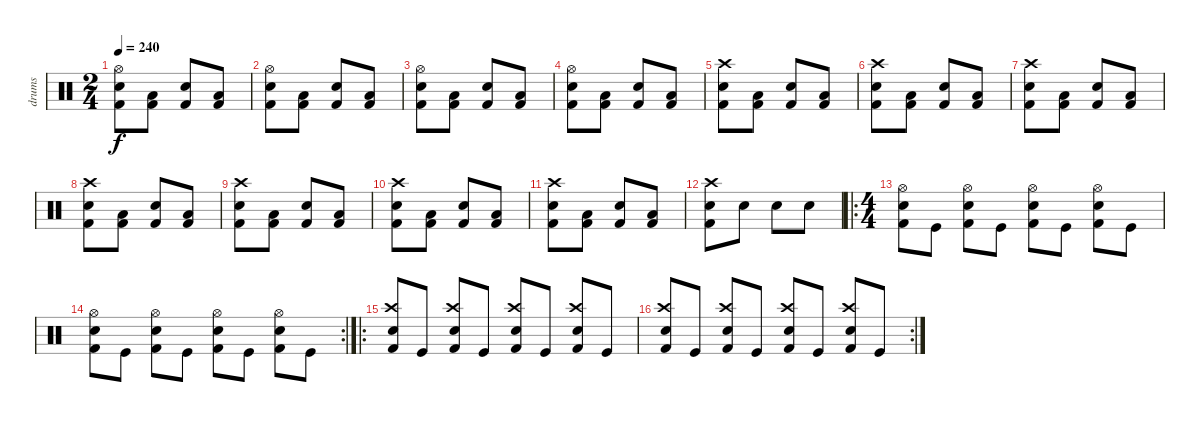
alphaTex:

\track ("drums" "drums") {instrument percussion}
\staff {score}
\articulation defaults
\ts (2 4)
\tempo 240
\clef neutral
\ks c
("Hi-Hat (open)" "Snare (hit) 2" "Kick (hit) 2").8{dy f} ("Low Tom (hit)" "Kick (hit) 2").8 ("Snare (hit) 2" "Kick (hit) 2").8 ("Low Tom (hit)" "Kick (hit) 2").8 |
("Hi-Hat (open)" "Snare (hit) 2" "Kick (hit) 2").8 ("Low Tom (hit)" "Kick (hit) 2").8 ("Snare (hit) 2" "Kick (hit) 2").8 ("Low Tom (hit)" "Kick (hit) 2").8 |
("Hi-Hat (open)" "Snare (hit) 2" "Kick (hit) 2").8 ("Low Tom (hit)" "Kick (hit) 2").8 ("Snare (hit) 2" "Kick (hit) 2").8 ("Low Tom (hit)" "Kick (hit) 2").8 |
("Hi-Hat (open)" "Snare (hit) 2" "Kick (hit) 2").8 ("Low Tom (hit)" "Kick (hit) 2").8 ("Snare (hit) 2" "Kick (hit) 2").8 ("Low Tom (hit)" "Kick (hit) 2").8 |
("Crash high (hit)" "Snare (hit) 2" "Kick (hit) 2").8 ("Low Tom (hit)" "Kick (hit) 2").8 ("Snare (hit) 2" "Kick (hit) 2").8 ("Low Tom (hit)" "Kick (hit) 2").8 |
("Crash high (hit)" "Snare (hit) 2" "Kick (hit) 2").8 ("Low Tom (hit)" "Kick (hit) 2").8 ("Snare (hit) 2" "Kick (hit) 2").8 ("Low Tom (hit)" "Kick (hit) 2").8 |
("Crash high (hit)" "Snare (hit) 2" "Kick (hit) 2").8 ("Low Tom (hit)" "Kick (hit) 2").8 ("Snare (hit) 2" "Kick (hit) 2").8 ("Low Tom (hit)" "Kick (hit) 2").8 |
("Crash high (hit)" "Snare (hit) 2" "Kick (hit) 2").8 ("Low Tom (hit)" "Kick (hit) 2").8 ("Snare (hit) 2" "Kick (hit) 2").8 ("Low Tom (hit)" "Kick (hit) 2").8 |
("Crash high (hit)" "Snare (hit) 2" "Kick (hit) 2").8 ("Low Tom (hit)" "Kick (hit) 2").8 ("Snare (hit) 2" "Kick (hit) 2").8 ("Low Tom (hit)" "Kick (hit) 2").8 |
("Crash high (hit)" "Snare (hit) 2" "Kick (hit) 2").8 ("Low Tom (hit)" "Kick (hit) 2").8 ("Snare (hit) 2" "Kick (hit) 2").8 ("Low Tom (hit)" "Kick (hit) 2").8 |
("Crash high (hit)" "Snare (hit) 2" "Kick (hit) 2").8 ("Low Tom (hit)" "Kick (hit) 2").8 ("Snare (hit) 2" "Kick (hit) 2").8 ("Low Tom (hit)" "Kick (hit) 2").8 |
("Crash high (hit)" "Snare (hit) 2" "Kick (hit) 2").8 "Electric Snare (hit)".8 "Electric Snare (hit)".8 "Electric Snare (hit)".8 |
\ro
\ts (4 4)
("Hi-Hat (open)" "Electric Snare (hit)" "Kick (hit) 2").8 "Kick (hit)".8 ("Hi-Hat (open)" "Electric Snare (hit)" "Kick (hit) 2").8 "Kick (hit)".8 ("Hi-Hat (open)" "Electric Snare (hit)" "Kick (hit) 2").8 "Kick (hit)".8 ("Hi-Hat (open)" "Electric Snare (hit)" "Kick (hit) 2").8 "Kick (hit)".8 |
\rc 2
("Hi-Hat (open)" "Electric Snare (hit)" "Kick (hit) 2").8 "Kick (hit)".8 ("Hi-Hat (open)" "Electric Snare (hit)" "Kick (hit) 2").8 "Kick (hit)".8 ("Hi-Hat (open)" "Electric Snare (hit)" "Kick (hit) 2").8 "Kick (hit)".8 ("Hi-Hat (open)" "Electric Snare (hit)" "Kick (hit) 2").8 "Kick (hit)".8 |
\ro
("Crash high (hit)" "Electric Snare (hit)" "Kick (hit) 2").8 "Kick (hit)".8 ("Crash high (hit)" "Electric Snare (hit)" "Kick (hit) 2").8 "Kick (hit)".8 ("Crash high (hit)" "Electric Snare (hit)" "Kick (hit) 2").8 "Kick (hit)".8 ("Crash high (hit)" "Electric Snare (hit)" "Kick (hit) 2").8 "Kick (hit)".8 |
\rc 2
("Crash high (hit)" "Electric Snare (hit)" "Kick (hit) 2").8 "Kick (hit)".8 ("Crash high (hit)" "Electric Snare (hit)" "Kick (hit) 2").8 "Kick (hit)".8 ("Crash high (hit)" "Electric Snare (hit)" "Kick (hit) 2").8 "Kick (hit)".8 ("Crash high (hit)" "Electric Snare (hit)" "Kick (hit) 2").8 "Kick (hit)".8
